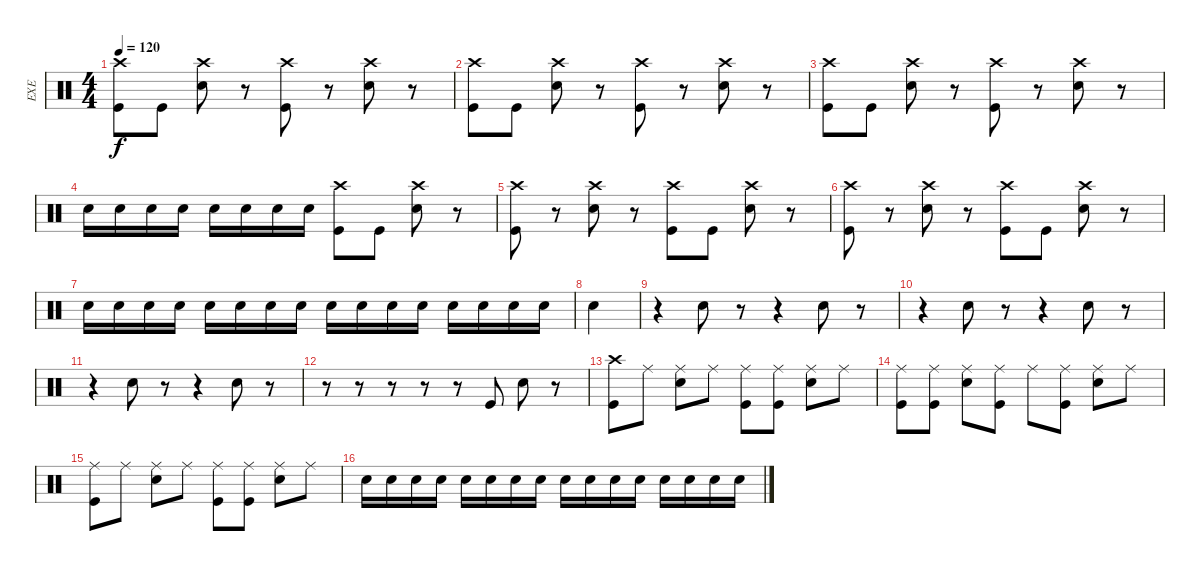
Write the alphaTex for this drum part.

\track ("EXE" "EXE") {instrument percussion}
\staff {score}
\articulation defaults
\ts (4 4)
\tempo 120
\clef neutral
\ks c
("Kick (hit)" "Crash high (hit)").8{dy f} "Kick (hit)".8 ("Snare (hit) 2" "Crash high (hit)").8 r.8 ("Kick (hit)" "Crash high (hit)").8 r.8 ("Snare (hit) 2" "Crash high (hit)").8 r.8 |
("Kick (hit)" "Crash high (hit)").8 "Kick (hit)".8 ("Snare (hit) 2" "Crash high (hit)").8 r.8 ("Kick (hit)" "Crash high (hit)").8 r.8 ("Snare (hit) 2" "Crash high (hit)").8 r.8 |
("Kick (hit)" "Crash high (hit)").8 "Kick (hit)".8 ("Snare (hit) 2" "Crash high (hit)").8 r.8 ("Kick (hit)" "Crash high (hit)").8 r.8 ("Snare (hit) 2" "Crash high (hit)").8 r.8 |
"Snare (hit) 2".16 "Snare (hit) 2".16 "Snare (hit) 2".16 "Snare (hit) 2".16 "Snare (hit) 2".16 "Snare (hit) 2".16 "Snare (hit) 2".16 "Snare (hit) 2".16 ("Kick (hit)" "Crash high (hit)").8 "Kick (hit)".8 ("Snare (hit) 2" "Crash high (hit)").8 r.8 |
("Kick (hit)" "Crash high (hit)").8 r.8 ("Snare (hit) 2" "Crash high (hit)").8 r.8 ("Kick (hit)" "Crash high (hit)").8 "Kick (hit)".8 ("Snare (hit) 2" "Crash high (hit)").8 r.8 |
("Kick (hit)" "Crash high (hit)").8 r.8 ("Snare (hit) 2" "Crash high (hit)").8 r.8 ("Kick (hit)" "Crash high (hit)").8 "Kick (hit)".8 ("Snare (hit) 2" "Crash high (hit)").8 r.8 |
"Snare (hit) 2".16 "Snare (hit) 2".16 "Snare (hit) 2".16 "Snare (hit) 2".16 "Snare (hit) 2".16 "Snare (hit) 2".16 "Snare (hit) 2".16 "Snare (hit) 2".16 "Snare (hit) 2".16 "Snare (hit) 2".16 "Snare (hit) 2".16 "Snare (hit) 2".16 "Snare (hit) 2".16 "Snare (hit) 2".16 "Snare (hit) 2".16 "Snare (hit) 2".16 |
"Snare (hit) 2".4 |
r.4 "Snare (hit) 2".8 r.8 r.4 "Snare (hit) 2".8 r.8 |
r.4 "Snare (hit) 2".8 r.8 r.4 "Snare (hit) 2".8 r.8 |
r.4 "Snare (hit) 2".8 r.8 r.4 "Snare (hit) 2".8 r.8 |
r.8 r.8 r.8 r.8 r.8 "Kick (hit)".8 "Snare (hit) 2".8 r.8 |
("Kick (hit)" "Crash high (hit)").8 "Ride (middle)".8 ("Snare (hit) 2" "Ride (middle)").8 "Ride (middle)".8 ("Kick (hit)" "Ride (middle)").8 ("Kick (hit)" "Ride (middle)").8 ("Snare (hit) 2" "Ride (middle)").8 "Ride (middle)".8 |
("Kick (hit)" "Ride (middle)").8 ("Kick (hit)" "Ride (middle)").8 ("Snare (hit) 2" "Ride (middle)").8 ("Kick (hit)" "Ride (middle)").8 "Ride (middle)".8 ("Kick (hit)" "Ride (middle)").8 ("Snare (hit) 2" "Ride (middle)").8 "Ride (middle)".8 |
("Kick (hit)" "Ride (middle)").8 "Ride (middle)".8 ("Snare (hit) 2" "Ride (middle)").8 "Ride (middle)".8 ("Kick (hit)" "Ride (middle)").8 ("Kick (hit)" "Ride (middle)").8 ("Snare (hit) 2" "Ride (middle)").8 "Ride (middle)".8 |
"Snare (hit) 2".16 "Snare (hit) 2".16 "Snare (hit) 2".16 "Snare (hit) 2".16 "Snare (hit) 2".16 "Snare (hit) 2".16 "Snare (hit) 2".16 "Snare (hit) 2".16 "Snare (hit) 2".16 "Snare (hit) 2".16 "Snare (hit) 2".16 "Snare (hit) 2".16 "Snare (hit) 2".16 "Snare (hit) 2".16 "Snare (hit) 2".16 "Snare (hit) 2".16
